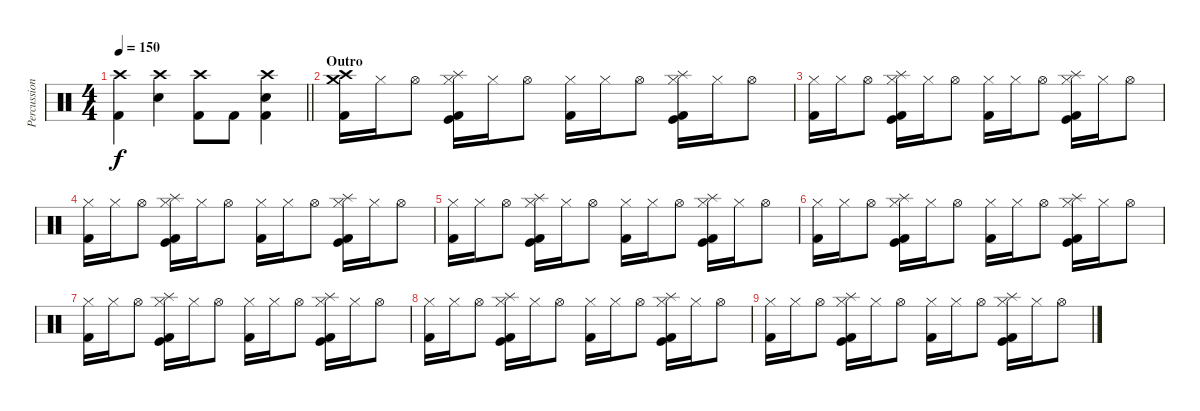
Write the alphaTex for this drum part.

\track ("Percussion" "Percussion") {instrument percussion}
\staff {score}
\articulation defaults
\ts (4 4)
\tempo 150
\clef neutral
\barLineRight lightlight
\ks c
("Crash high (hit)" "Kick (hit) 2").4{dy f} ("Crash high (hit)" "Snare (hit) 2").4 ("Crash high (hit)" "Kick (hit) 2").8 "Kick (hit) 2".8 ("Crash high (hit)" "Snare (hit) 2" "Kick (hit) 2").4 |
\section ("" "Outro")
("Crash high (hit)" "Crash medium (hit)" "Kick (hit) 2").16 "Hi-Hat (closed)".16 "Hi-Hat (open)".8 ("Hi-Hat (closed)" "Splash (hit)" "Kick (hit)" "Kick (hit) 2").16 "Hi-Hat (closed)".16 "Hi-Hat (open)".8 ("Hi-Hat (closed)" "Kick (hit) 2").16 "Hi-Hat (closed)".16 "Hi-Hat (open)".8 ("Hi-Hat (closed)" "Splash (hit)" "Kick (hit)" "Kick (hit) 2").16 "Hi-Hat (closed)".16 "Hi-Hat (open)".8 |
("Hi-Hat (closed)" "Kick (hit) 2").16 "Hi-Hat (closed)".16 "Hi-Hat (open)".8 ("Hi-Hat (closed)" "Splash (hit)" "Kick (hit)" "Kick (hit) 2").16 "Hi-Hat (closed)".16 "Hi-Hat (open)".8 ("Hi-Hat (closed)" "Kick (hit) 2").16 "Hi-Hat (closed)".16 "Hi-Hat (open)".8 ("Hi-Hat (closed)" "Splash (hit)" "Kick (hit)" "Kick (hit) 2").16 "Hi-Hat (closed)".16 "Hi-Hat (open)".8 |
("Hi-Hat (closed)" "Kick (hit) 2").16 "Hi-Hat (closed)".16 "Hi-Hat (open)".8 ("Hi-Hat (closed)" "Splash (hit)" "Kick (hit)" "Kick (hit) 2").16 "Hi-Hat (closed)".16 "Hi-Hat (open)".8 ("Hi-Hat (closed)" "Kick (hit) 2").16 "Hi-Hat (closed)".16 "Hi-Hat (open)".8 ("Hi-Hat (closed)" "Splash (hit)" "Kick (hit)" "Kick (hit) 2").16 "Hi-Hat (closed)".16 "Hi-Hat (open)".8 |
("Hi-Hat (closed)" "Kick (hit) 2").16 "Hi-Hat (closed)".16 "Hi-Hat (open)".8 ("Hi-Hat (closed)" "Splash (hit)" "Kick (hit)" "Kick (hit) 2").16 "Hi-Hat (closed)".16 "Hi-Hat (open)".8 ("Hi-Hat (closed)" "Kick (hit) 2").16 "Hi-Hat (closed)".16 "Hi-Hat (open)".8 ("Hi-Hat (closed)" "Splash (hit)" "Kick (hit)" "Kick (hit) 2").16 "Hi-Hat (closed)".16 "Hi-Hat (open)".8 |
("Hi-Hat (closed)" "Kick (hit) 2").16 "Hi-Hat (closed)".16 "Hi-Hat (open)".8 ("Hi-Hat (closed)" "Splash (hit)" "Kick (hit)" "Kick (hit) 2").16 "Hi-Hat (closed)".16 "Hi-Hat (open)".8 ("Hi-Hat (closed)" "Kick (hit) 2").16 "Hi-Hat (closed)".16 "Hi-Hat (open)".8 ("Hi-Hat (closed)" "Splash (hit)" "Kick (hit)" "Kick (hit) 2").16 "Hi-Hat (closed)".16 "Hi-Hat (open)".8 |
("Hi-Hat (closed)" "Kick (hit) 2").16 "Hi-Hat (closed)".16 "Hi-Hat (open)".8 ("Hi-Hat (closed)" "Splash (hit)" "Kick (hit)" "Kick (hit) 2").16 "Hi-Hat (closed)".16 "Hi-Hat (open)".8 ("Hi-Hat (closed)" "Kick (hit) 2").16 "Hi-Hat (closed)".16 "Hi-Hat (open)".8 ("Hi-Hat (closed)" "Splash (hit)" "Kick (hit)" "Kick (hit) 2").16 "Hi-Hat (closed)".16 "Hi-Hat (open)".8 |
("Hi-Hat (closed)" "Kick (hit) 2").16 "Hi-Hat (closed)".16 "Hi-Hat (open)".8 ("Hi-Hat (closed)" "Splash (hit)" "Kick (hit)" "Kick (hit) 2").16 "Hi-Hat (closed)".16 "Hi-Hat (open)".8 ("Hi-Hat (closed)" "Kick (hit) 2").16 "Hi-Hat (closed)".16 "Hi-Hat (open)".8 ("Hi-Hat (closed)" "Splash (hit)" "Kick (hit)" "Kick (hit) 2").16 "Hi-Hat (closed)".16 "Hi-Hat (open)".8 |
("Hi-Hat (closed)" "Kick (hit) 2").16 "Hi-Hat (closed)".16 "Hi-Hat (open)".8 ("Hi-Hat (closed)" "Splash (hit)" "Kick (hit)" "Kick (hit) 2").16 "Hi-Hat (closed)".16 "Hi-Hat (open)".8 ("Hi-Hat (closed)" "Kick (hit) 2").16 "Hi-Hat (closed)".16 "Hi-Hat (open)".8 ("Hi-Hat (closed)" "Splash (hit)" "Kick (hit)" "Kick (hit) 2").16 "Hi-Hat (closed)".16 "Hi-Hat (open)".8
